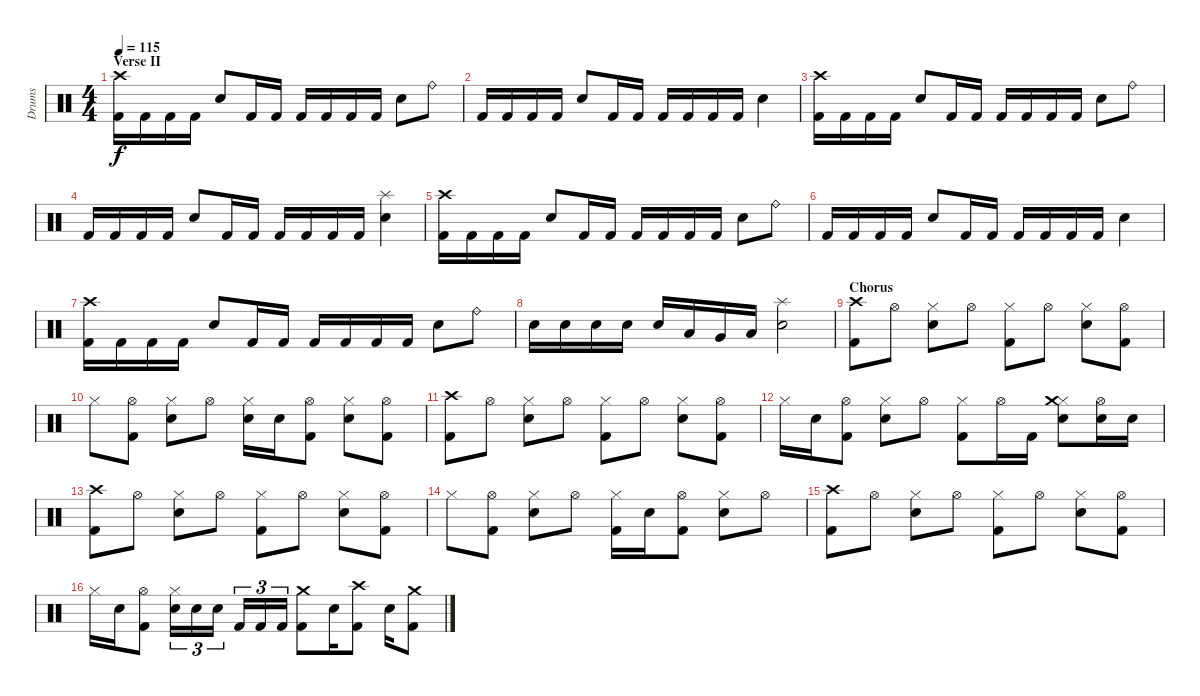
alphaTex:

\track ("Drums" "Drums") {instrument percussion}
\staff {score}
\articulation defaults
\ts (4 4)
\section ("" "Verse II")
\tempo 115
\clef neutral
\ks c
("Kick (hit) 2" "Crash high (hit)").16{dy f} "Kick (hit) 2".16 "Kick (hit) 2".16 "Kick (hit) 2".16 "Electric Snare (hit)".8 "Kick (hit) 2".16 "Kick (hit) 2".16 "Kick (hit) 2".16 "Kick (hit) 2".16 "Kick (hit) 2".16 "Kick (hit) 2".16 "Electric Snare (hit)".8 "Ride (bell)".8 |
"Kick (hit) 2".16 "Kick (hit) 2".16 "Kick (hit) 2".16 "Kick (hit) 2".16 "Electric Snare (hit)".8 "Kick (hit) 2".16 "Kick (hit) 2".16 "Kick (hit) 2".16 "Kick (hit) 2".16 "Kick (hit) 2".16 "Kick (hit) 2".16 "Electric Snare (hit)".4 |
("Kick (hit) 2" "Crash high (hit)").16 "Kick (hit) 2".16 "Kick (hit) 2".16 "Kick (hit) 2".16 "Electric Snare (hit)".8 "Kick (hit) 2".16 "Kick (hit) 2".16 "Kick (hit) 2".16 "Kick (hit) 2".16 "Kick (hit) 2".16 "Kick (hit) 2".16 "Electric Snare (hit)".8 "Ride (bell)".8 |
"Kick (hit) 2".16 "Kick (hit) 2".16 "Kick (hit) 2".16 "Kick (hit) 2".16 "Electric Snare (hit)".8 "Kick (hit) 2".16 "Kick (hit) 2".16 "Kick (hit) 2".16 "Kick (hit) 2".16 "Kick (hit) 2".16 "Kick (hit) 2".16 ("Electric Snare (hit)" "Splash (hit)").4 |
("Kick (hit) 2" "Crash high (hit)").16 "Kick (hit) 2".16 "Kick (hit) 2".16 "Kick (hit) 2".16 "Electric Snare (hit)".8 "Kick (hit) 2".16 "Kick (hit) 2".16 "Kick (hit) 2".16 "Kick (hit) 2".16 "Kick (hit) 2".16 "Kick (hit) 2".16 "Electric Snare (hit)".8 "Ride (bell)".8 |
"Kick (hit) 2".16 "Kick (hit) 2".16 "Kick (hit) 2".16 "Kick (hit) 2".16 "Electric Snare (hit)".8 "Kick (hit) 2".16 "Kick (hit) 2".16 "Kick (hit) 2".16 "Kick (hit) 2".16 "Kick (hit) 2".16 "Kick (hit) 2".16 "Electric Snare (hit)".4 |
("Kick (hit) 2" "Crash high (hit)").16 "Kick (hit) 2".16 "Kick (hit) 2".16 "Kick (hit) 2".16 "Electric Snare (hit)".8 "Kick (hit) 2".16 "Kick (hit) 2".16 "Kick (hit) 2".16 "Kick (hit) 2".16 "Kick (hit) 2".16 "Kick (hit) 2".16 "Electric Snare (hit)".8 "Ride (bell)".8 |
"Electric Snare (hit)".16 "Electric Snare (hit)".16 "Electric Snare (hit)".16 "Electric Snare (hit)".16 "Electric Snare (hit)".16 "Low Tom (hit)".16 "Very Low Tom (hit)".16 "Low Floor Tom (hit)".16 ("Electric Snare (hit)" "Splash (hit)").2 |
\section ("" "Chorus")
("Kick (hit) 2" "Crash high (hit)").8 "Hi-Hat (open)".8 ("Electric Snare (hit)" "Hi-Hat (closed)").8 "Hi-Hat (open)".8 ("Kick (hit) 2" "Hi-Hat (closed)").8 "Hi-Hat (open)".8 ("Electric Snare (hit)" "Hi-Hat (closed)").8 ("Kick (hit) 2" "Hi-Hat (open)").8 |
"Hi-Hat (closed)".8 ("Kick (hit) 2" "Hi-Hat (open)").8 ("Electric Snare (hit)" "Hi-Hat (closed)").8 "Hi-Hat (open)".8 ("Electric Snare (hit)" "Hi-Hat (closed)").16 "Electric Snare (hit)".16 ("Kick (hit) 2" "Hi-Hat (open)").8 ("Electric Snare (hit)" "Hi-Hat (closed)").8 ("Kick (hit) 2" "Hi-Hat (open)").8 |
("Kick (hit) 2" "Crash high (hit)").8 "Hi-Hat (open)".8 ("Electric Snare (hit)" "Hi-Hat (closed)").8 "Hi-Hat (open)".8 ("Kick (hit) 2" "Hi-Hat (closed)").8 "Hi-Hat (open)".8 ("Electric Snare (hit)" "Hi-Hat (closed)").8 ("Kick (hit) 2" "Hi-Hat (open)").8 |
"Hi-Hat (closed)".16 "Electric Snare (hit)".16 ("Kick (hit) 2" "Hi-Hat (open)").8 ("Electric Snare (hit)" "Hi-Hat (closed)").8 "Hi-Hat (open)".8 ("Kick (hit) 2" "Hi-Hat (closed)").8 "Hi-Hat (open)".16 "Kick (hit) 2".16 ("Electric Snare (hit)" "Hi-Hat (closed)" "Crash medium (hit)").8 ("Electric Snare (hit)" "Hi-Hat (open)").16 "Electric Snare (hit)".16 |
("Kick (hit) 2" "Crash high (hit)").8 "Hi-Hat (open)".8 ("Electric Snare (hit)" "Hi-Hat (closed)").8 "Hi-Hat (open)".8 ("Kick (hit) 2" "Hi-Hat (closed)").8 "Hi-Hat (open)".8 ("Electric Snare (hit)" "Hi-Hat (closed)").8 ("Kick (hit) 2" "Hi-Hat (open)").8 |
"Hi-Hat (closed)".8 ("Kick (hit) 2" "Hi-Hat (open)").8 ("Electric Snare (hit)" "Hi-Hat (closed)").8 "Hi-Hat (open)".8 ("Kick (hit) 2" "Hi-Hat (closed)").16 "Electric Snare (hit)".16 ("Kick (hit) 2" "Hi-Hat (open)").8 ("Electric Snare (hit)" "Hi-Hat (closed)").8 "Hi-Hat (open)".8 |
("Kick (hit) 2" "Crash high (hit)").8 "Hi-Hat (open)".8 ("Electric Snare (hit)" "Hi-Hat (closed)").8 "Hi-Hat (open)".8 ("Kick (hit) 2" "Hi-Hat (closed)").8 "Hi-Hat (open)".8 ("Electric Snare (hit)" "Hi-Hat (closed)").8 ("Kick (hit) 2" "Hi-Hat (open)").8 |
"Hi-Hat (closed)".16 "Electric Snare (hit)".16 ("Kick (hit) 2" "Hi-Hat (open)").8 ("Electric Snare (hit)" "Hi-Hat (closed)").16{tu (3 2)} "Electric Snare (hit)".16{tu (3 2)} "Electric Snare (hit)".16{tu (3 2)} "Kick (hit) 2".16{tu (3 2)} "Kick (hit) 2".16{tu (3 2)} "Kick (hit) 2".16{tu (3 2)} ("Kick (hit) 2" "Crash medium (hit)").8 "Electric Snare (hit)".16 ("Kick (hit) 2" "Crash high (hit)").8 "Electric Snare (hit)".16 ("Kick (hit) 2" "Crash medium (hit)").8
